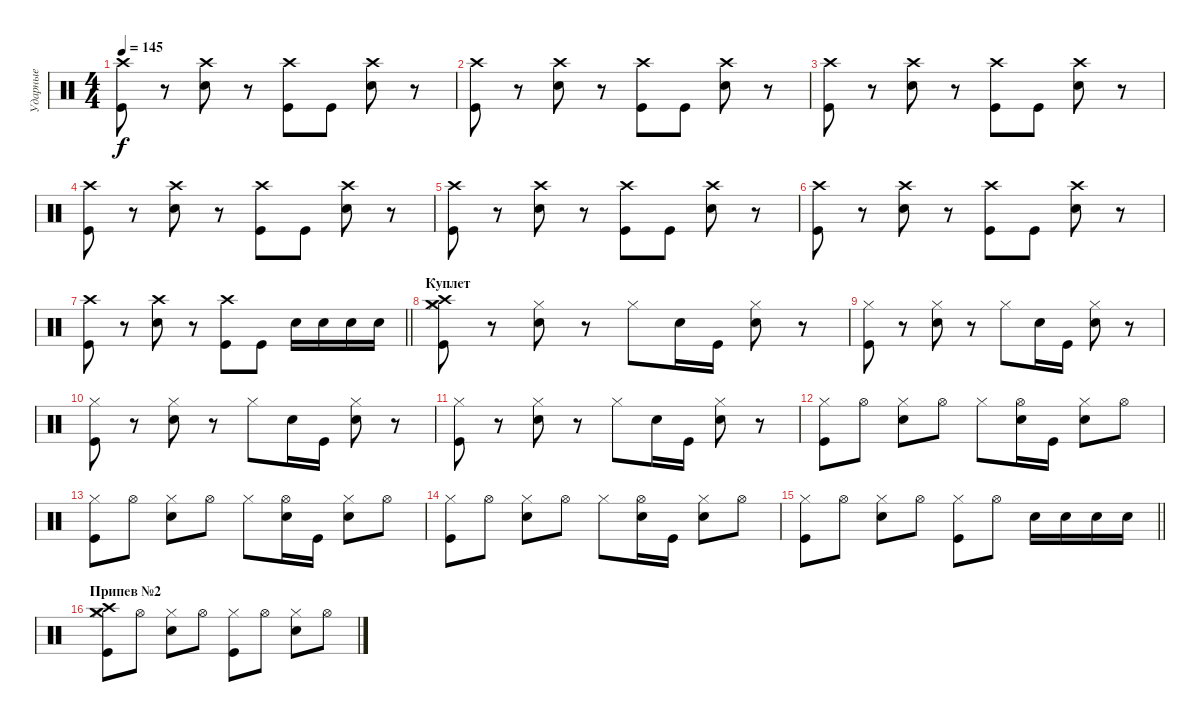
\track ("Ударные" "Ударные") {instrument percussion}
\staff {score}
\articulation defaults
\ts (4 4)
\tempo 145
\clef neutral
\ks c
("Kick (hit)" "Crash high (hit)").8{dy f} r.8 ("Electric Snare (hit)" "Crash high (hit)").8 r.8 ("Kick (hit)" "Crash high (hit)").8 "Kick (hit)".8 ("Electric Snare (hit)" "Crash high (hit)").8 r.8 |
("Kick (hit)" "Crash high (hit)").8 r.8 ("Electric Snare (hit)" "Crash high (hit)").8 r.8 ("Kick (hit)" "Crash high (hit)").8 "Kick (hit)".8 ("Electric Snare (hit)" "Crash high (hit)").8 r.8 |
("Kick (hit)" "Crash high (hit)").8 r.8 ("Electric Snare (hit)" "Crash high (hit)").8 r.8 ("Kick (hit)" "Crash high (hit)").8 "Kick (hit)".8 ("Electric Snare (hit)" "Crash high (hit)").8 r.8 |
("Kick (hit)" "Crash high (hit)").8 r.8 ("Electric Snare (hit)" "Crash high (hit)").8 r.8 ("Kick (hit)" "Crash high (hit)").8 "Kick (hit)".8 ("Electric Snare (hit)" "Crash high (hit)").8 r.8 |
("Kick (hit)" "Crash high (hit)").8 r.8 ("Electric Snare (hit)" "Crash high (hit)").8 r.8 ("Kick (hit)" "Crash high (hit)").8 "Kick (hit)".8 ("Electric Snare (hit)" "Crash high (hit)").8 r.8 |
("Kick (hit)" "Crash high (hit)").8 r.8 ("Electric Snare (hit)" "Crash high (hit)").8 r.8 ("Kick (hit)" "Crash high (hit)").8 "Kick (hit)".8 ("Electric Snare (hit)" "Crash high (hit)").8 r.8 |
\barLineRight lightlight
("Kick (hit)" "Crash high (hit)").8 r.8 ("Electric Snare (hit)" "Crash high (hit)").8 r.8 ("Kick (hit)" "Crash high (hit)").8 "Kick (hit)".8 "Electric Snare (hit)".16 "Electric Snare (hit)".16 "Electric Snare (hit)".16 "Electric Snare (hit)".16 |
\section ("" "Куплет")
("Kick (hit)" "Crash medium (hit)" "Hi-Hat (closed)" "Crash high (hit)").8 r.8 ("Electric Snare (hit)" "Hi-Hat (closed)").8 r.8 "Hi-Hat (closed)".8 "Electric Snare (hit)".16 "Kick (hit)".16 ("Electric Snare (hit)" "Hi-Hat (closed)").8 r.8 |
("Kick (hit)" "Hi-Hat (closed)").8 r.8 ("Electric Snare (hit)" "Hi-Hat (closed)").8 r.8 "Hi-Hat (closed)".8 "Electric Snare (hit)".16 "Kick (hit)".16 ("Electric Snare (hit)" "Hi-Hat (closed)").8 r.8 |
("Kick (hit)" "Hi-Hat (closed)").8 r.8 ("Electric Snare (hit)" "Hi-Hat (closed)").8 r.8 "Hi-Hat (closed)".8 "Electric Snare (hit)".16 "Kick (hit)".16 ("Electric Snare (hit)" "Hi-Hat (closed)").8 r.8 |
("Kick (hit)" "Hi-Hat (closed)").8 r.8 ("Electric Snare (hit)" "Hi-Hat (closed)").8 r.8 "Hi-Hat (closed)".8 "Electric Snare (hit)".16 "Kick (hit)".16 ("Electric Snare (hit)" "Hi-Hat (closed)").8 r.8 |
("Kick (hit)" "Hi-Hat (closed)").8 "Hi-Hat (open)".8 ("Electric Snare (hit)" "Hi-Hat (closed)").8 "Hi-Hat (open)".8 "Hi-Hat (closed)".8 ("Electric Snare (hit)" "Hi-Hat (open)").16 "Kick (hit)".16 ("Electric Snare (hit)" "Hi-Hat (closed)").8 "Hi-Hat (open)".8 |
("Kick (hit)" "Hi-Hat (closed)").8 "Hi-Hat (open)".8 ("Electric Snare (hit)" "Hi-Hat (closed)").8 "Hi-Hat (open)".8 "Hi-Hat (closed)".8 ("Electric Snare (hit)" "Hi-Hat (open)").16 "Kick (hit)".16 ("Electric Snare (hit)" "Hi-Hat (closed)").8 "Hi-Hat (open)".8 |
("Kick (hit)" "Hi-Hat (closed)").8 "Hi-Hat (open)".8 ("Electric Snare (hit)" "Hi-Hat (closed)").8 "Hi-Hat (open)".8 "Hi-Hat (closed)".8 ("Electric Snare (hit)" "Hi-Hat (open)").16 "Kick (hit)".16 ("Electric Snare (hit)" "Hi-Hat (closed)").8 "Hi-Hat (open)".8 |
\barLineRight lightlight
("Kick (hit)" "Hi-Hat (closed)").8 "Hi-Hat (open)".8 ("Electric Snare (hit)" "Hi-Hat (closed)").8 "Hi-Hat (open)".8 ("Kick (hit)" "Hi-Hat (closed)").8 "Hi-Hat (open)".8 "Electric Snare (hit)".16 "Electric Snare (hit)".16 "Electric Snare (hit)".16 "Electric Snare (hit)".16 |
\section ("" "Припев №2")
("Kick (hit)" "Hi-Hat (closed)" "Crash high (hit)" "Crash medium (hit)").8 "Hi-Hat (open)".8 ("Electric Snare (hit)" "Hi-Hat (closed)").8 "Hi-Hat (open)".8 ("Kick (hit)" "Hi-Hat (closed)").8 "Hi-Hat (open)".8 ("Electric Snare (hit)" "Hi-Hat (closed)").8 "Hi-Hat (open)".8
